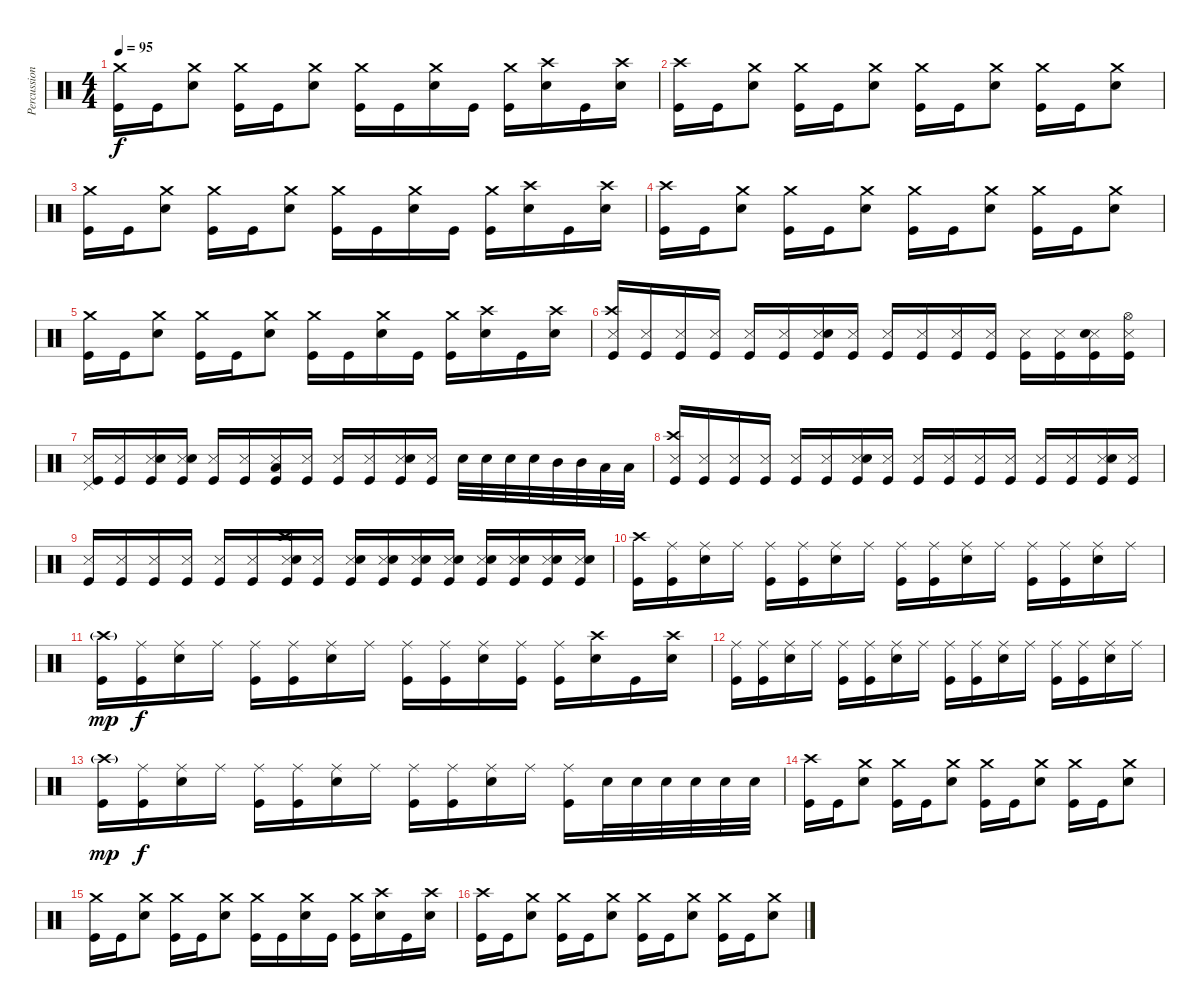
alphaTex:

\track ("Percussion" "Percussion") {instrument percussion}
\staff {score}
\articulation defaults
\ts (4 4)
\tempo 95
\clef neutral
\ks c
("Crash medium (hit)" "Kick (hit)").16{dy f} "Kick (hit)".16 ("Crash medium (hit)" "Electric Snare (hit)").8 ("Crash medium (hit)" "Kick (hit)").16 "Kick (hit)".16 ("Crash medium (hit)" "Electric Snare (hit)").8 ("Crash medium (hit)" "Kick (hit)").16 "Kick (hit)".16 ("Crash medium (hit)" "Electric Snare (hit)").16 "Kick (hit)".16 ("Crash medium (hit)" "Kick (hit)").16 ("Crash high (hit)" "Electric Snare (hit)").16 "Kick (hit)".16 ("Crash high (hit)" "Electric Snare (hit)").16 |
("Crash high (hit)" "Kick (hit)").16 "Kick (hit)".16 ("Crash medium (hit)" "Electric Snare (hit)").8 ("Crash medium (hit)" "Kick (hit)").16 "Kick (hit)".16 ("Crash medium (hit)" "Electric Snare (hit)").8 ("Crash medium (hit)" "Kick (hit)").16 "Kick (hit)".16 ("Crash medium (hit)" "Electric Snare (hit)").8 ("Crash medium (hit)" "Kick (hit)").16 "Kick (hit)".16 ("Crash medium (hit)" "Electric Snare (hit)").8 |
("Crash medium (hit)" "Kick (hit)").16 "Kick (hit)".16 ("Crash medium (hit)" "Electric Snare (hit)").8 ("Crash medium (hit)" "Kick (hit)").16 "Kick (hit)".16 ("Crash medium (hit)" "Electric Snare (hit)").8 ("Crash medium (hit)" "Kick (hit)").16 "Kick (hit)".16 ("Crash medium (hit)" "Electric Snare (hit)").16 "Kick (hit)".16 ("Crash medium (hit)" "Kick (hit)").16 ("Crash high (hit)" "Electric Snare (hit)").16 "Kick (hit)".16 ("Crash high (hit)" "Electric Snare (hit)").16 |
("Crash high (hit)" "Kick (hit)").16 "Kick (hit)".16 ("Crash medium (hit)" "Electric Snare (hit)").8 ("Crash medium (hit)" "Kick (hit)").16 "Kick (hit)".16 ("Crash medium (hit)" "Electric Snare (hit)").8 ("Crash medium (hit)" "Kick (hit)").16 "Kick (hit)".16 ("Crash medium (hit)" "Electric Snare (hit)").8 ("Crash medium (hit)" "Kick (hit)").16 "Kick (hit)".16 ("Crash medium (hit)" "Electric Snare (hit)").8 |
("Crash medium (hit)" "Kick (hit)").16 "Kick (hit)".16 ("Crash medium (hit)" "Electric Snare (hit)").8 ("Crash medium (hit)" "Kick (hit)").16 "Kick (hit)".16 ("Crash medium (hit)" "Electric Snare (hit)").8 ("Crash medium (hit)" "Kick (hit)").16 "Kick (hit)".16 ("Crash medium (hit)" "Electric Snare (hit)").16 "Kick (hit)".16 ("Crash medium (hit)" "Kick (hit)").16 ("Crash high (hit)" "Electric Snare (hit)").16 "Kick (hit)".16 ("Crash high (hit)" "Electric Snare (hit)").16 |
("Crash high (hit)" "Snare (side stick) 3" "Kick (hit)").16 ("Snare (side stick) 3" "Kick (hit)").16 ("Snare (side stick) 3" "Kick (hit)").16 ("Snare (side stick) 3" "Kick (hit)").16 ("Snare (side stick) 3" "Kick (hit)").16 ("Snare (side stick) 3" "Kick (hit)").16 ("Snare (side stick) 3" "Electric Snare (hit)" "Kick (hit)").16 ("Snare (side stick) 3" "Kick (hit)").16 ("Snare (side stick) 3" "Kick (hit)").16 ("Snare (side stick) 3" "Kick (hit)").16 ("Snare (side stick) 3" "Kick (hit)").16 ("Snare (side stick) 3" "Kick (hit)").16 ("Snare (side stick) 3" "Kick (hit)").16 ("Snare (side stick) 3" "Kick (hit)").16 ("Snare (side stick) 3" "Electric Snare (hit)" "Kick (hit)").16 ("Snare (side stick) 3" "Hi-Hat (open)" "Kick (hit)").16 |
("Snare (side stick) 3" "Pedal Hi-Hat (hit)" "Kick (hit)").16 ("Snare (side stick) 3" "Kick (hit)").16 ("Snare (side stick) 3" "Electric Snare (hit)" "Kick (hit)").16 ("Snare (side stick) 3" "Electric Snare (hit)" "Kick (hit)").16 ("Snare (side stick) 3" "Kick (hit)").16 ("Snare (side stick) 3" "Kick (hit)").16 ("Snare (side stick) 3" "Low Tom (hit)" "Kick (hit)").16 ("Snare (side stick) 3" "Kick (hit)").16 ("Snare (side stick) 3" "Kick (hit)").16 ("Snare (side stick) 3" "Kick (hit)").16 ("Snare (side stick) 3" "Electric Snare (hit)" "Kick (hit)").16 ("Snare (side stick) 3" "Kick (hit)").16 "Electric Snare (hit)".32 "Electric Snare (hit)".32 "Electric Snare (hit)".32 "Electric Snare (hit)".32 "Mid Tom (hit)".32 "Mid Tom (hit)".32 "Low Tom (hit)".32 "Low Tom (hit)".32 |
("Crash high (hit)" "Snare (side stick) 3" "Kick (hit)").16 ("Snare (side stick) 3" "Kick (hit)").16 ("Snare (side stick) 3" "Kick (hit)").16 ("Snare (side stick) 3" "Kick (hit)").16 ("Snare (side stick) 3" "Kick (hit)").16 ("Snare (side stick) 3" "Kick (hit)").16 ("Snare (side stick) 3" "Electric Snare (hit)" "Kick (hit)").16 ("Snare (side stick) 3" "Kick (hit)").16 ("Snare (side stick) 3" "Kick (hit)").16 ("Snare (side stick) 3" "Kick (hit)").16 ("Snare (side stick) 3" "Kick (hit)").16 ("Snare (side stick) 3" "Kick (hit)").16 ("Snare (side stick) 3" "Kick (hit)").16 ("Snare (side stick) 3" "Kick (hit)").16 ("Snare (side stick) 3" "Electric Snare (hit)" "Kick (hit)").16 ("Snare (side stick) 3" "Kick (hit)").16 |
("Snare (side stick) 3" "Kick (hit)").16 ("Snare (side stick) 3" "Kick (hit)").16 ("Snare (side stick) 3" "Kick (hit)").16 ("Snare (side stick) 3" "Kick (hit)").16 ("Snare (side stick) 3" "Kick (hit)").16 ("Snare (side stick) 3" "Kick (hit)").16 ("Crash high (hit)" "Snare (side stick) 3" "Electric Snare (hit)" "Kick (hit)").16 ("Snare (side stick) 3" "Kick (hit)").16 ("Snare (side stick) 3" "Electric Snare (hit)" "Kick (hit)").16 ("Snare (side stick) 3" "Electric Snare (hit)" "Kick (hit)").16 ("Snare (side stick) 3" "Electric Snare (hit)" "Kick (hit)").16 ("Snare (side stick) 3" "Electric Snare (hit)" "Kick (hit)").16 ("Snare (side stick) 3" "Electric Snare (hit)" "Kick (hit)").16 ("Snare (side stick) 3" "Electric Snare (hit)" "Kick (hit)").16 ("Snare (side stick) 3" "Electric Snare (hit)" "Kick (hit)").16 ("Snare (side stick) 3" "Electric Snare (hit)" "Kick (hit)").16 |
("Crash high (hit)" "Kick (hit)").16 ("Ride (middle)" "Kick (hit)").16 ("Ride (middle)" "Electric Snare (hit)").16 "Ride (middle)".16 ("Ride (middle)" "Kick (hit)").16 ("Ride (middle)" "Kick (hit)").16 ("Ride (middle)" "Electric Snare (hit)").16 "Ride (middle)".16 ("Ride (middle)" "Kick (hit)").16 ("Ride (middle)" "Kick (hit)").16 ("Ride (middle)" "Electric Snare (hit)").16 "Ride (middle)".16 ("Ride (middle)" "Kick (hit)").16 ("Ride (middle)" "Kick (hit)").16 ("Ride (middle)" "Electric Snare (hit)").16 "Ride (middle)".16 |
("Crash high (hit)"{g} "Kick (hit)").16{dy mp} ("Ride (middle)" "Kick (hit)").16{dy f} ("Ride (middle)" "Electric Snare (hit)").16 "Ride (middle)".16 ("Ride (middle)" "Kick (hit)").16 ("Ride (middle)" "Kick (hit)").16 ("Ride (middle)" "Electric Snare (hit)").16 "Ride (middle)".16 ("Ride (middle)" "Kick (hit)").16 ("Ride (middle)" "Kick (hit)").16 ("Ride (middle)" "Electric Snare (hit)").16 ("Ride (middle)" "Kick (hit)").16 ("Ride (middle)" "Kick (hit)").16 ("Crash high (hit)" "Electric Snare (hit)").16 "Kick (hit)".16 ("Crash high (hit)" "Electric Snare (hit)").16 |
("Ride (middle)" "Kick (hit)").16 ("Ride (middle)" "Kick (hit)").16 ("Ride (middle)" "Electric Snare (hit)").16 "Ride (middle)".16 ("Ride (middle)" "Kick (hit)").16 ("Ride (middle)" "Kick (hit)").16 ("Ride (middle)" "Electric Snare (hit)").16 "Ride (middle)".16 ("Ride (middle)" "Kick (hit)").16 ("Ride (middle)" "Kick (hit)").16 ("Ride (middle)" "Electric Snare (hit)").16 "Ride (middle)".16 ("Ride (middle)" "Kick (hit)").16 ("Ride (middle)" "Kick (hit)").16 ("Ride (middle)" "Electric Snare (hit)").16 "Ride (middle)".16 |
("Crash high (hit)"{g} "Kick (hit)").16{dy mp} ("Ride (middle)" "Kick (hit)").16{dy f} ("Ride (middle)" "Electric Snare (hit)").16 "Ride (middle)".16 ("Ride (middle)" "Kick (hit)").16 ("Ride (middle)" "Kick (hit)").16 ("Ride (middle)" "Electric Snare (hit)").16 "Ride (middle)".16 ("Ride (middle)" "Kick (hit)").16 ("Ride (middle)" "Kick (hit)").16 ("Ride (middle)" "Electric Snare (hit)").16 "Ride (middle)".16 ("Ride (middle)" "Kick (hit)").16 "Electric Snare (hit)".32 "Electric Snare (hit)".32 "Electric Snare (hit)".32 "Electric Snare (hit)".32 "Electric Snare (hit)".32 "Electric Snare (hit)".32 |
("Crash high (hit)" "Kick (hit)").16 "Kick (hit)".16 ("Crash medium (hit)" "Electric Snare (hit)").8 ("Crash medium (hit)" "Kick (hit)").16 "Kick (hit)".16 ("Crash medium (hit)" "Electric Snare (hit)").8 ("Crash medium (hit)" "Kick (hit)").16 "Kick (hit)".16 ("Crash medium (hit)" "Electric Snare (hit)").8 ("Crash medium (hit)" "Kick (hit)").16 "Kick (hit)".16 ("Crash medium (hit)" "Electric Snare (hit)").8 |
("Crash medium (hit)" "Kick (hit)").16 "Kick (hit)".16 ("Crash medium (hit)" "Electric Snare (hit)").8 ("Crash medium (hit)" "Kick (hit)").16 "Kick (hit)".16 ("Crash medium (hit)" "Electric Snare (hit)").8 ("Crash medium (hit)" "Kick (hit)").16 "Kick (hit)".16 ("Crash medium (hit)" "Electric Snare (hit)").16 "Kick (hit)".16 ("Crash medium (hit)" "Kick (hit)").16 ("Crash high (hit)" "Electric Snare (hit)").16 "Kick (hit)".16 ("Crash high (hit)" "Electric Snare (hit)").16 |
("Crash high (hit)" "Kick (hit)").16 "Kick (hit)".16 ("Crash medium (hit)" "Electric Snare (hit)").8 ("Crash medium (hit)" "Kick (hit)").16 "Kick (hit)".16 ("Crash medium (hit)" "Electric Snare (hit)").8 ("Crash medium (hit)" "Kick (hit)").16 "Kick (hit)".16 ("Crash medium (hit)" "Electric Snare (hit)").8 ("Crash medium (hit)" "Kick (hit)").16 "Kick (hit)".16 ("Crash medium (hit)" "Electric Snare (hit)").8
